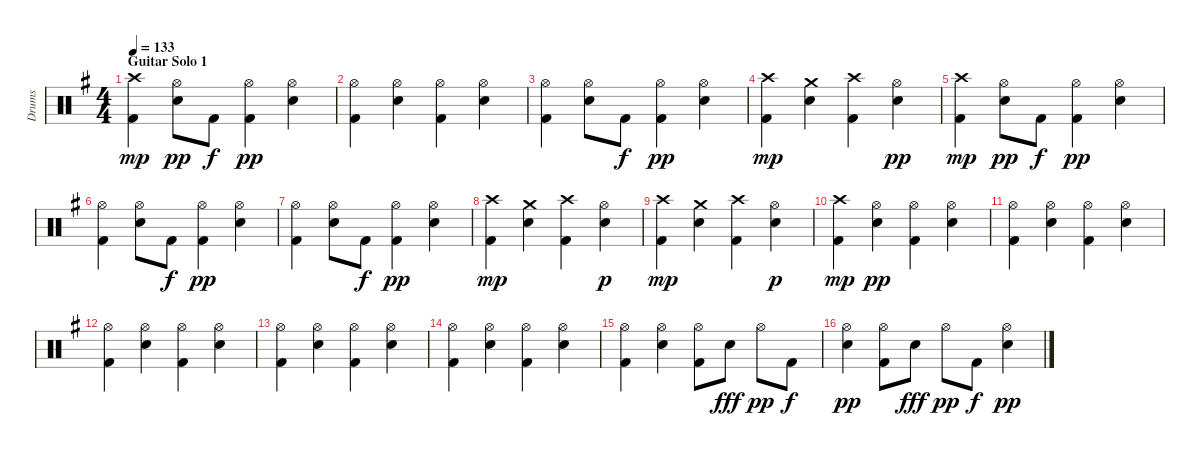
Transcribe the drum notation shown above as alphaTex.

\track ("Drums" "Drums") {instrument percussion}
\staff {score}
\articulation defaults
\ts (4 4)
\section ("" "Guitar Solo 1")
\tempo 133
\clef neutral
\ks g
("Crash high (hit)" "Kick (hit) 2").4{dy mp} ("Electric Snare (hit)" "Hi-Hat (open)").8{dy pp} "Kick (hit) 2".8{dy f} ("Kick (hit) 2" "Hi-Hat (open)").4{dy pp} ("Electric Snare (hit)" "Hi-Hat (open)").4 |
("Kick (hit) 2" "Hi-Hat (open)").4 ("Electric Snare (hit)" "Hi-Hat (open)").4 ("Kick (hit) 2" "Hi-Hat (open)").4 ("Electric Snare (hit)" "Hi-Hat (open)").4 |
("Kick (hit) 2" "Hi-Hat (open)").4 ("Electric Snare (hit)" "Hi-Hat (open)").8 "Kick (hit) 2".8{dy f} ("Kick (hit) 2" "Hi-Hat (open)").4{dy pp} ("Electric Snare (hit)" "Hi-Hat (open)").4 |
("Kick (hit) 2" "Crash high (hit)").4{dy mp} ("Electric Snare (hit)" "Crash medium (hit)").4 ("Kick (hit) 2" "Crash high (hit)").4 ("Electric Snare (hit)" "Hi-Hat (open)").4{dy pp} |
("Crash high (hit)" "Kick (hit) 2").4{dy mp} ("Electric Snare (hit)" "Hi-Hat (open)").8{dy pp} "Kick (hit) 2".8{dy f} ("Kick (hit) 2" "Hi-Hat (open)").4{dy pp} ("Electric Snare (hit)" "Hi-Hat (open)").4 |
("Kick (hit) 2" "Hi-Hat (open)").4 ("Electric Snare (hit)" "Hi-Hat (open)").8 "Kick (hit) 2".8{dy f} ("Kick (hit) 2" "Hi-Hat (open)").4{dy pp} ("Electric Snare (hit)" "Hi-Hat (open)").4 |
("Kick (hit) 2" "Hi-Hat (open)").4 ("Electric Snare (hit)" "Hi-Hat (open)").8 "Kick (hit) 2".8{dy f} ("Kick (hit) 2" "Hi-Hat (open)").4{dy pp} ("Electric Snare (hit)" "Hi-Hat (open)").4 |
("Kick (hit) 2" "Crash high (hit)").4{dy mp} ("Electric Snare (hit)" "Crash medium (hit)").4 ("Kick (hit) 2" "Crash high (hit)").4 ("Electric Snare (hit)" "Hi-Hat (open)").4{dy p} |
("Kick (hit) 2" "Crash high (hit)").4{dy mp} ("Electric Snare (hit)" "Crash medium (hit)").4 ("Kick (hit) 2" "Crash high (hit)").4 ("Electric Snare (hit)" "Hi-Hat (open)").4{dy p} |
("Kick (hit) 2" "Crash high (hit)").4{dy mp} ("Electric Snare (hit)" "Hi-Hat (open)").4{dy pp} ("Kick (hit) 2" "Hi-Hat (open)").4 ("Electric Snare (hit)" "Hi-Hat (open)").4 |
("Kick (hit) 2" "Hi-Hat (open)").4 ("Electric Snare (hit)" "Hi-Hat (open)").4 ("Kick (hit) 2" "Hi-Hat (open)").4 ("Electric Snare (hit)" "Hi-Hat (open)").4 |
("Kick (hit) 2" "Hi-Hat (open)").4 ("Electric Snare (hit)" "Hi-Hat (open)").4 ("Kick (hit) 2" "Hi-Hat (open)").4 ("Electric Snare (hit)" "Hi-Hat (open)").4 |
("Kick (hit) 2" "Hi-Hat (open)").4 ("Electric Snare (hit)" "Hi-Hat (open)").4 ("Kick (hit) 2" "Hi-Hat (open)").4 ("Electric Snare (hit)" "Hi-Hat (open)").4 |
("Kick (hit) 2" "Hi-Hat (open)").4 ("Electric Snare (hit)" "Hi-Hat (open)").4 ("Kick (hit) 2" "Hi-Hat (open)").4 ("Electric Snare (hit)" "Hi-Hat (open)").4 |
("Kick (hit) 2" "Hi-Hat (open)").4 ("Electric Snare (hit)" "Hi-Hat (open)").4 ("Kick (hit) 2" "Hi-Hat (open)").8 "Electric Snare (hit)".8{dy fff} "Hi-Hat (open)".8{dy pp} "Kick (hit) 2".8{dy f} |
("Electric Snare (hit)" "Hi-Hat (open)").4{dy pp} ("Kick (hit) 2" "Hi-Hat (open)").8 "Electric Snare (hit)".8{dy fff} "Hi-Hat (open)".8{dy pp} "Kick (hit) 2".8{dy f} ("Electric Snare (hit)" "Hi-Hat (open)").4{dy pp}
